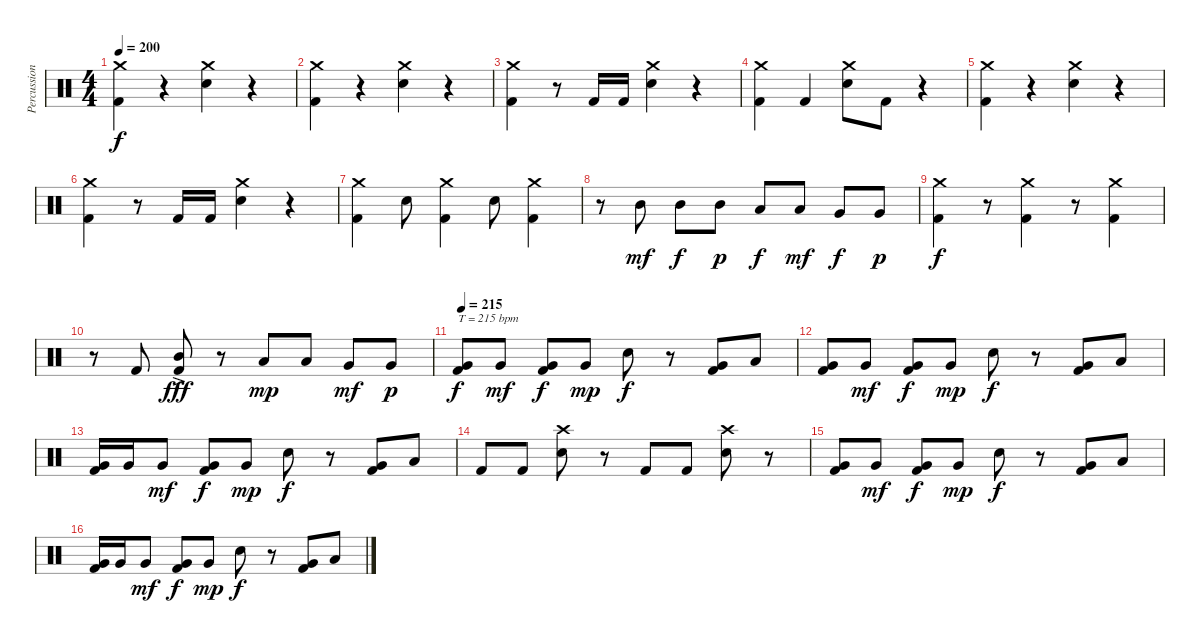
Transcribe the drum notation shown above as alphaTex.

\track ("Percussion" "Percussion") {instrument percussion}
\staff {score}
\articulation defaults
\ts (4 4)
\tempo 200
\clef neutral
\ks c
("Crash medium (hit)" "Kick (hit) 2").4{dy f} r.4 ("Crash medium (hit)" "Electric Snare (hit)").4 r.4 |
("Crash medium (hit)" "Kick (hit) 2").4 r.4 ("Crash medium (hit)" "Electric Snare (hit)").4 r.4 |
("Crash medium (hit)" "Kick (hit) 2").4 r.8 "Kick (hit) 2".16 "Kick (hit) 2".16 ("Crash medium (hit)" "Electric Snare (hit)").4 r.4 |
("Crash medium (hit)" "Kick (hit) 2").4 "Kick (hit) 2".4 ("Crash medium (hit)" "Electric Snare (hit)").8 "Kick (hit) 2".8 r.4 |
("Crash medium (hit)" "Kick (hit) 2").4 r.4 ("Crash medium (hit)" "Electric Snare (hit)").4 r.4 |
("Crash medium (hit)" "Kick (hit) 2").4 r.8 "Kick (hit) 2".16 "Kick (hit) 2".16 ("Crash medium (hit)" "Electric Snare (hit)").4 r.4 |
("Crash medium (hit)" "Kick (hit) 2").4 "Electric Snare (hit)".8 ("Crash medium (hit)" "Kick (hit) 2").4 "Electric Snare (hit)".8 ("Crash medium (hit)" "Kick (hit) 2").4 |
r.8 "Mid Tom (hit)".8{dy mf} "Mid Tom (hit)".8{dy f} "Mid Tom (hit)".8{dy p} "Low Tom (hit)".8{dy f} "Low Tom (hit)".8{dy mf} "Very Low Tom (hit)".8{dy f} "Very Low Tom (hit)".8{dy p} |
("Crash medium (hit)" "Kick (hit) 2").4{dy f} r.8 ("Crash medium (hit)" "Kick (hit) 2").4 r.8 ("Crash medium (hit)" "Kick (hit) 2").4 |
r.8 "Kick (hit) 2".8 ("Mid Tom (hit)"{ac} "Kick (hit) 2").8{dy fff} r.8 "Low Tom (hit)".8{dy mp} "Low Tom (hit)".8 "Very Low Tom (hit)".8{dy mf} "Very Low Tom (hit)".8{dy p} |
\tempo 215
("Very Low Tom (hit)" "Kick (hit) 2").8{txt "T = 215 bpm" dy f} "Very Low Tom (hit)".8{dy mf} ("Very Low Tom (hit)" "Kick (hit) 2").8{dy f} "Very Low Tom (hit)".8{dy mp} "Electric Snare (hit)".8{dy f} r.8 ("Very Low Tom (hit)" "Kick (hit) 2").8 "Low Tom (hit)".8 |
("Very Low Tom (hit)" "Kick (hit) 2").8 "Very Low Tom (hit)".8{dy mf} ("Very Low Tom (hit)" "Kick (hit) 2").8{dy f} "Very Low Tom (hit)".8{dy mp} "Electric Snare (hit)".8{dy f} r.8 ("Very Low Tom (hit)" "Kick (hit) 2").8 "Low Tom (hit)".8 |
("Very Low Tom (hit)" "Kick (hit) 2").16 "Very Low Tom (hit)".16 "Very Low Tom (hit)".8{dy mf} ("Very Low Tom (hit)" "Kick (hit) 2").8{dy f} "Very Low Tom (hit)".8{dy mp} "Electric Snare (hit)".8{dy f} r.8 ("Very Low Tom (hit)" "Kick (hit) 2").8 "Low Tom (hit)".8 |
"Kick (hit) 2".8 "Kick (hit) 2".8 ("Crash high (hit)" "Electric Snare (hit)").8 r.8 "Kick (hit) 2".8 "Kick (hit) 2".8 ("Crash high (hit)" "Electric Snare (hit)").8 r.8 |
("Very Low Tom (hit)" "Kick (hit) 2").8 "Very Low Tom (hit)".8{dy mf} ("Very Low Tom (hit)" "Kick (hit) 2").8{dy f} "Very Low Tom (hit)".8{dy mp} "Electric Snare (hit)".8{dy f} r.8 ("Very Low Tom (hit)" "Kick (hit) 2").8 "Low Tom (hit)".8 |
("Very Low Tom (hit)" "Kick (hit) 2").16 "Very Low Tom (hit)".16 "Very Low Tom (hit)".8{dy mf} ("Very Low Tom (hit)" "Kick (hit) 2").8{dy f} "Very Low Tom (hit)".8{dy mp} "Electric Snare (hit)".8{dy f} r.8 ("Very Low Tom (hit)" "Kick (hit) 2").8 "Low Tom (hit)".8
